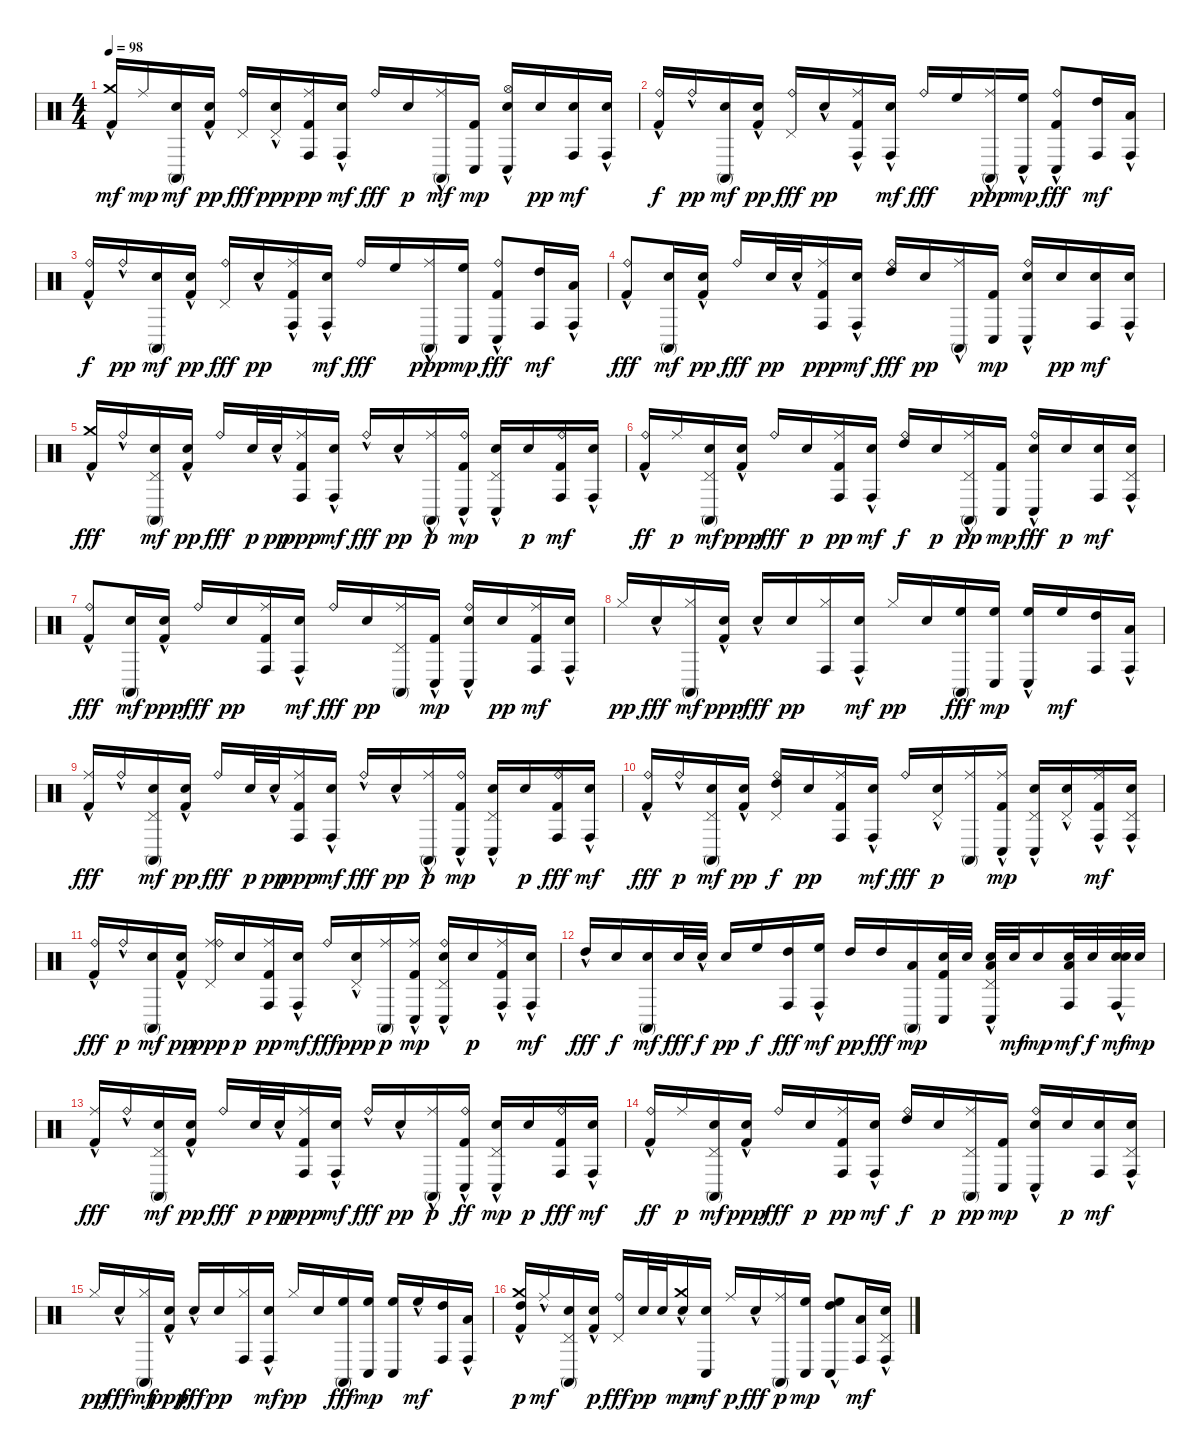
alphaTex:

\track "" {instrument percussion}
\staff {score}
\articulation defaults
\ts (4 4)
\tempo 98
\clef neutral
\ks c
("Kick (hit) 2"{hac} "Crash medium (hit)").16{dy mf} "Ride (middle)".16{dy mp} ("Snare (hit) 2" "Conga high (mute)").16{dy mf} ("Kick (hit) 2"{hac} "Snare (hit) 2").16{dy pp} ("Pedal Hi-Hat (hit)" "Ride (bell)").16{dy fff} ("Snare (hit) 2" "Pedal Hi-Hat (hit)"{hac}).16{dy ppp} ("Conga high (hit)" "Kick (hit) 2" "Ride (middle)").16{dy pp} ("Electric Snare (hit)" "Conga high (hit)"{hac}).16{dy mf} "Ride (bell)".16{dy fff} "Snare (hit) 2".16{dy p} ("Ride (middle)"{hac} "Conga high (mute)").16{dy mf} ("Kick (hit) 2" "Conga low (hit)").16{dy mp} ("Electric Snare (hit)"{hac} "Conga low (hit)"{hac} "Hi-Hat (open)").16 "Snare (hit) 2".16{dy pp} ("Snare (hit) 2" "Conga high (hit)").16{dy mf} ("Electric Snare (hit)"{hac} "Conga high (hit)"{hac}).16 |
("Kick (hit) 2"{hac} "Ride (bell)").16{dy f} "Ride (bell)"{hac}.16{dy pp} ("Electric Snare (hit)" "Conga high (mute)").16{dy mf} ("Kick (hit) 2"{hac} "Snare (hit) 2").16{dy pp} ("Pedal Hi-Hat (hit)" "Ride (bell)").16{dy fff} "Snare (hit) 2"{hac}.16{dy pp} ("Kick (hit) 2"{hac} "Ride (middle)" "Conga high (hit)").16 ("Electric Snare (hit)" "Conga high (hit)"{hac}).16{dy mf} "Ride (bell)".16{dy fff} "High Floor Tom (hit)".16 ("Ride (middle)"{hac} "Conga high (mute)").16{dy ppp} ("High Floor Tom (hit)"{hac} "Conga low (hit)").16{dy mp} ("Conga low (hit)"{hac} "Kick (hit) 2" "Ride (bell)").8{dy fff} ("High Tom (hit)" "Conga high (hit)").16{dy mf} ("Low Tom (hit)" "Conga high (hit)"{hac}).16 |
("Kick (hit) 2"{hac} "Ride (bell)").16{dy f} "Ride (bell)"{hac}.16{dy pp} ("Electric Snare (hit)" "Conga high (mute)").16{dy mf} ("Kick (hit) 2"{hac} "Snare (hit) 2").16{dy pp} ("Pedal Hi-Hat (hit)" "Ride (bell)").16{dy fff} "Snare (hit) 2"{hac}.16{dy pp} ("Kick (hit) 2"{hac} "Ride (middle)" "Conga high (hit)").16 ("Electric Snare (hit)" "Conga high (hit)"{hac}).16{dy mf} "Ride (bell)".16{dy fff} "High Floor Tom (hit)".16 ("Ride (middle)"{hac} "Conga high (mute)").16{dy ppp} ("High Floor Tom (hit)" "Conga low (hit)").16{dy mp} ("Conga low (hit)"{hac} "Kick (hit) 2" "Ride (bell)").8{dy fff} ("High Tom (hit)" "Conga high (hit)").16{dy mf} ("Low Tom (hit)" "Conga high (hit)"{hac}).16 |
("Kick (hit) 2"{hac} "Ride (bell)").8{dy fff} ("Snare (hit) 2" "Conga high (mute)").16{dy mf} ("Kick (hit) 2"{hac} "Snare (hit) 2").16{dy pp} "Ride (bell)".16{dy fff} "Snare (hit) 2".32{dy pp} "Snare (hit) 2"{hac}.32 ("Kick (hit) 2" "Ride (middle)" "Conga high (hit)").16{dy ppp} ("Electric Snare (hit)" "Conga high (hit)"{hac}).16{dy mf} ("High Tom (hit)" "Ride (bell)").16{dy fff} "Snare (hit) 2".16{dy pp} ("Ride (middle)"{hac} "Conga high (mute)").16 ("Kick (hit) 2" "Conga low (hit)").16{dy mp} ("Electric Snare (hit)"{hac} "Ride (bell)" "Conga low (hit)"{hac}).16 "Snare (hit) 2".16{dy pp} ("Snare (hit) 2" "Conga high (hit)").16{dy mf} ("Electric Snare (hit)"{hac} "Conga high (hit)"{hac}).16 |
("Kick (hit) 2"{hac} "Crash medium (hit)").16{dy fff} "Ride (bell)"{hac}.16 ("Electric Snare (hit)" "Pedal Hi-Hat (hit)" "Conga high (mute)").16{dy mf} ("Kick (hit) 2"{hac} "Snare (hit) 2").16{dy pp} "Ride (bell)".16{dy fff} "Snare (hit) 2".32{dy p} "Snare (hit) 2"{hac}.32{dy pp} ("Kick (hit) 2" "Ride (middle)" "Conga high (hit)").16{dy ppp} ("Electric Snare (hit)" "Conga high (hit)"{hac}).16{dy mf} "Ride (bell)"{hac}.16{dy fff} "Electric Snare (hit)"{hac}.16{dy pp} ("Ride (middle)"{hac} "Conga high (mute)").16{dy p} ("Kick (hit) 2"{hac} "Ride (bell)"{hac} "Conga low (hit)").16{dy mp} ("Electric Snare (hit)"{hac} "Pedal Hi-Hat (hit)"{hac} "Conga low (hit)"{hac}).16 "Snare (hit) 2".16{dy p} ("Kick (hit) 2" "Ride (bell)" "Conga high (hit)").16{dy mf} ("Snare (hit) 2" "Conga high (hit)"{hac}).16 |
("Kick (hit) 2"{hac} "Ride (bell)").16{dy ff} "Ride (middle)".16{dy p} ("Electric Snare (hit)" "Pedal Hi-Hat (hit)" "Conga high (mute)").16{dy mf} ("Kick (hit) 2"{hac} "Snare (hit) 2").16{dy ppp} "Ride (bell)".16{dy fff} "Snare (hit) 2".16{dy p} ("Ride (middle)" "Conga high (hit)" "Kick (hit) 2").16{dy pp} ("Electric Snare (hit)" "Conga high (hit)"{hac}).16{dy mf} ("High Tom (hit)" "Ride (bell)").16{dy f} "Snare (hit) 2".16{dy p} ("Pedal Hi-Hat (hit)" "Ride (middle)"{hac} "Conga high (mute)").16{dy pp} ("Kick (hit) 2" "Conga low (hit)").16{dy mp} ("Ride (bell)" "Conga low (hit)"{hac} "Electric Snare (hit)"{hac}).16{dy fff} "Snare (hit) 2".16{dy p} ("Snare (hit) 2" "Conga high (hit)").16{dy mf} ("Electric Snare (hit)"{hac} "Pedal Hi-Hat (hit)" "Conga high (hit)"{hac}).16 |
("Kick (hit) 2"{hac} "Ride (bell)").8{dy fff} ("Electric Snare (hit)" "Conga high (mute)").16{dy mf} ("Kick (hit) 2"{hac} "Snare (hit) 2").16{dy ppp} "Ride (bell)".16{dy fff} "Snare (hit) 2".16{dy pp} ("Kick (hit) 2" "Ride (middle)" "Conga high (hit)").16 ("Electric Snare (hit)" "Conga high (hit)"{hac}).16{dy mf} "Ride (bell)".16{dy fff} "Snare (hit) 2".16{dy pp} ("Pedal Hi-Hat (hit)" "Ride (middle)" "Conga high (mute)").16 ("Kick (hit) 2"{hac} "Conga low (hit)").16{dy mp} ("Electric Snare (hit)" "Ride (bell)" "Conga low (hit)"{hac}).16 "Snare (hit) 2".16{dy pp} ("Kick (hit) 2" "Ride (middle)" "Conga high (hit)").16{dy mf} ("Snare (hit) 2" "Conga high (hit)"{hac}).16 |
"Hi-Hat (closed)".16{dy pp} "Electric Snare (hit)"{hac}.16{dy fff} ("Hi-Hat (closed)" "Conga high (mute)").16{dy mf} ("Kick (hit) 2"{hac} "Snare (hit) 2").16{dy ppp} "Electric Snare (hit)"{hac}.16{dy fff} "Snare (hit) 2".16{dy pp} ("Hi-Hat (closed)" "Conga high (hit)").16 ("Electric Snare (hit)" "Conga high (hit)"{hac}).16{dy mf} "Hi-Hat (closed)".16{dy pp} "Snare (hit) 2".16 ("High Floor Tom (hit)" "Conga high (mute)").16{dy fff} ("High Floor Tom (hit)" "Conga low (hit)").16{dy mp} ("High Floor Tom (hit)" "Conga low (hit)"{hac}).16 "High Floor Tom (hit)".16{dy mf} ("High Tom (hit)" "Conga high (hit)").16 ("Low Tom (hit)" "Conga high (hit)"{hac}).16 |
("Kick (hit) 2"{hac} "Ride (middle)"{hac}).16{dy fff} "Ride (bell)"{hac}.16 ("Electric Snare (hit)" "Pedal Hi-Hat (hit)" "Conga high (mute)").16{dy mf} ("Kick (hit) 2"{hac} "Snare (hit) 2").16{dy pp} "Ride (bell)".16{dy fff} "Snare (hit) 2".32{dy p} "Snare (hit) 2"{hac}.32{dy pp} ("Kick (hit) 2" "Ride (middle)" "Conga high (hit)").16{dy ppp} ("Electric Snare (hit)" "Conga high (hit)"{hac}).16{dy mf} "Ride (bell)"{hac}.16{dy fff} "Electric Snare (hit)"{hac}.16{dy pp} ("Ride (middle)"{hac} "Conga high (mute)").16{dy p} ("Kick (hit) 2"{hac} "Ride (bell)"{hac} "Conga low (hit)").16{dy mp} ("Electric Snare (hit)"{hac} "Pedal Hi-Hat (hit)"{hac} "Conga low (hit)"{hac}).16 "Snare (hit) 2".16{dy p} ("Conga high (hit)" "Kick (hit) 2" "Ride (bell)").16{dy fff} ("Snare (hit) 2" "Conga high (hit)"{hac}).16{dy mf} |
("Kick (hit) 2"{hac} "Ride (bell)").16{dy fff} "Ride (bell)"{hac}.16{dy p} ("Electric Snare (hit)" "Pedal Hi-Hat (hit)" "Conga high (mute)").16{dy mf} ("Kick (hit) 2"{hac} "Snare (hit) 2").16{dy pp} ("Ride (bell)" "Pedal Hi-Hat (hit)" "High Tom (hit)").16{dy f} "Snare (hit) 2".16{dy pp} ("Kick (hit) 2" "Ride (middle)" "Conga high (hit)").16 ("Electric Snare (hit)" "Conga high (hit)"{hac}).16{dy mf} "Ride (bell)".16{dy fff} ("Snare (hit) 2" "Pedal Hi-Hat (hit)"{hac}).16{dy p} ("Ride (middle)" "Conga high (mute)").16 ("Ride (middle)"{hac} "Conga low (hit)" "Kick (hit) 2"{hac}).16{dy mp} ("Electric Snare (hit)"{hac} "Pedal Hi-Hat (hit)" "Conga low (hit)"{hac}).16 ("Snare (hit) 2"{hac} "Pedal Hi-Hat (hit)").16 ("Kick (hit) 2" "Ride (middle)"{hac} "Conga high (hit)").16{dy mf} ("Electric Snare (hit)"{hac} "Pedal Hi-Hat (hit)" "Conga high (hit)"{hac}).16 |
("Kick (hit) 2"{hac} "Ride (bell)").16{dy fff} "Ride (bell)"{hac}.16{dy p} ("Electric Snare (hit)" "Conga high (mute)").16{dy mf} ("Kick (hit) 2"{hac} "Snare (hit) 2").16{dy pp} ("Ride (middle)" "Ride (bell)" "Pedal Hi-Hat (hit)").16{dy ppp} "Snare (hit) 2".16{dy p} ("Kick (hit) 2" "Ride (middle)" "Conga high (hit)").16{dy pp} ("Electric Snare (hit)" "Conga high (hit)"{hac}).16{dy mf} "Ride (bell)".16{dy fff} ("Snare (hit) 2" "Pedal Hi-Hat (hit)"{hac}).16{dy ppp} ("Ride (middle)" "Conga high (mute)").16{dy p} ("Kick (hit) 2"{hac} "Ride (middle)"{hac} "Conga low (hit)").16{dy mp} ("Electric Snare (hit)"{hac} "Pedal Hi-Hat (hit)" "Ride (bell)" "Conga low (hit)"{hac}).16 "Snare (hit) 2".16{dy p} ("Conga high (hit)" "Kick (hit) 2"{hac} "Ride (middle)").16 ("Snare (hit) 2" "Conga high (hit)"{hac}).16{dy mf} |
"High Tom (hit)"{hac}.16{dy fff} "Snare (hit) 2".16{dy f} ("Snare (hit) 2" "Conga high (mute)").16{dy mf} "Electric Snare (hit)".32{dy fff} "Electric Snare (hit)"{hac}.32{dy f} "Snare (hit) 2".16{dy pp} "High Floor Tom (hit)".16{dy f} ("High Tom (hit)" "Conga high (hit)").16{dy fff} ("High Floor Tom (hit)" "Conga high (hit)"{hac}).16{dy mf} "High Tom (hit)".16{dy pp} "High Tom (hit)".16{dy fff} ("Low Tom (hit)" "Conga high (mute)").16{dy mp} ("Kick (hit) 2" "Electric Snare (hit)" "Conga low (hit)").32 "Electric Snare (hit)".32 ("Low Floor Tom (hit)" "Pedal Hi-Hat (hit)"{hac} "Electric Snare (hit)" "Conga low (hit)"{hac}).32 "Electric Snare (hit)".32{dy mf} "Electric Snare (hit)".16{dy mp} ("Electric Snare (hit)" "Low Floor Tom (hit)" "Conga high (hit)").32{dy mf} "Electric Snare (hit)".32{dy f} ("Snare (hit) 2" "Electric Snare (hit)" "Conga high (hit)"{hac}).32{dy mf} "Electric Snare (hit)".32{dy mp} |
("Kick (hit) 2"{hac} "Ride (middle)"{hac}).16{dy fff} "Ride (bell)"{hac}.16 ("Electric Snare (hit)" "Pedal Hi-Hat (hit)" "Conga high (mute)").16{dy mf} ("Kick (hit) 2"{hac} "Snare (hit) 2").16{dy pp} "Ride (bell)".16{dy fff} "Snare (hit) 2".32{dy p} "Snare (hit) 2"{hac}.32{dy pp} ("Kick (hit) 2" "Ride (middle)" "Conga high (hit)").16{dy ppp} ("Electric Snare (hit)" "Conga high (hit)"{hac}).16{dy mf} "Ride (bell)"{hac}.16{dy fff} "Electric Snare (hit)"{hac}.16{dy pp} ("Ride (middle)"{hac} "Conga high (mute)").16{dy p} ("Conga low (hit)" "Kick (hit) 2"{hac} "Ride (bell)"{hac}).16{dy ff} ("Electric Snare (hit)"{hac} "Pedal Hi-Hat (hit)"{hac} "Conga low (hit)"{hac}).16{dy mp} "Snare (hit) 2".16{dy p} ("Conga high (hit)" "Kick (hit) 2" "Ride (bell)").16{dy fff} ("Snare (hit) 2" "Conga high (hit)"{hac}).16{dy mf} |
("Kick (hit) 2"{hac} "Ride (bell)").16{dy ff} "Ride (middle)".16{dy p} ("Electric Snare (hit)" "Pedal Hi-Hat (hit)" "Conga high (mute)").16{dy mf} ("Kick (hit) 2"{hac} "Snare (hit) 2").16{dy ppp} "Ride (bell)".16{dy fff} "Snare (hit) 2".16{dy p} ("Kick (hit) 2" "Ride (middle)" "Conga high (hit)").16{dy pp} ("Electric Snare (hit)" "Conga high (hit)"{hac}).16{dy mf} ("High Tom (hit)" "Ride (bell)").16{dy f} "Snare (hit) 2".16{dy p} ("Pedal Hi-Hat (hit)" "Ride (middle)" "Conga high (mute)").16{dy pp} ("Kick (hit) 2" "Conga low (hit)").16{dy mp} ("Electric Snare (hit)"{hac} "Ride (bell)" "Conga low (hit)"{hac}).16 "Snare (hit) 2".16{dy p} ("Snare (hit) 2" "Conga high (hit)").16{dy mf} ("Electric Snare (hit)" "Pedal Hi-Hat (hit)" "Conga high (hit)"{hac}).16 |
"Hi-Hat (closed)".16{dy pp} "Electric Snare (hit)"{hac}.16{dy fff} ("Hi-Hat (closed)" "Conga high (mute)").16{dy mf} ("Kick (hit) 2"{hac} "Snare (hit) 2").16{dy ppp} "Electric Snare (hit)"{hac}.16{dy fff} "Snare (hit) 2".16{dy pp} ("Hi-Hat (closed)" "Conga high (hit)").16 ("Electric Snare (hit)" "Conga high (hit)"{hac}).16{dy mf} "Hi-Hat (closed)".16{dy pp} "Snare (hit) 2".16 ("High Floor Tom (hit)" "Conga high (mute)").16{dy fff} ("High Floor Tom (hit)" "Conga low (hit)").16{dy mp} ("High Floor Tom (hit)" "Conga low (hit)").16 "High Floor Tom (hit)"{hac}.16{dy mf} ("High Tom (hit)" "Conga high (hit)").16 ("Low Tom (hit)"{hac} "Conga high (hit)"{hac}).16 |
("Kick (hit) 2"{hac} "High Tom (hit)"{hac} "Crash medium (hit)"{hac}).16{dy p} "Ride (middle)"{hac}.16{dy mf} ("Electric Snare (hit)" "Pedal Hi-Hat (hit)" "Conga high (mute)").16 ("Kick (hit) 2"{hac} "Snare (hit) 2").16{dy p} ("Pedal Hi-Hat (hit)" "Ride (bell)").16{dy fff} "Snare (hit) 2".32{dy pp} "Snare (hit) 2".32 ("Snare (hit) 2"{hac} "Crash medium (hit)").16{dy mp} ("Electric Snare (hit)" "Conga low (hit)").16{dy mf} "Ride (middle)".16{dy p} "Electric Snare (hit)"{hac}.16{dy fff} ("Ride (middle)" "Conga high (mute)").16{dy p} ("High Floor Tom (hit)" "Conga low (hit)").16{dy mp} ("High Tom (hit)" "High Floor Tom (hit)" "Conga low (hit)"{hac}).8 ("Low Tom (hit)" "Conga high (hit)").16{dy mf} ("Electric Snare (hit)"{hac} "Pedal Hi-Hat (hit)" "Conga high (hit)"{hac}).16
